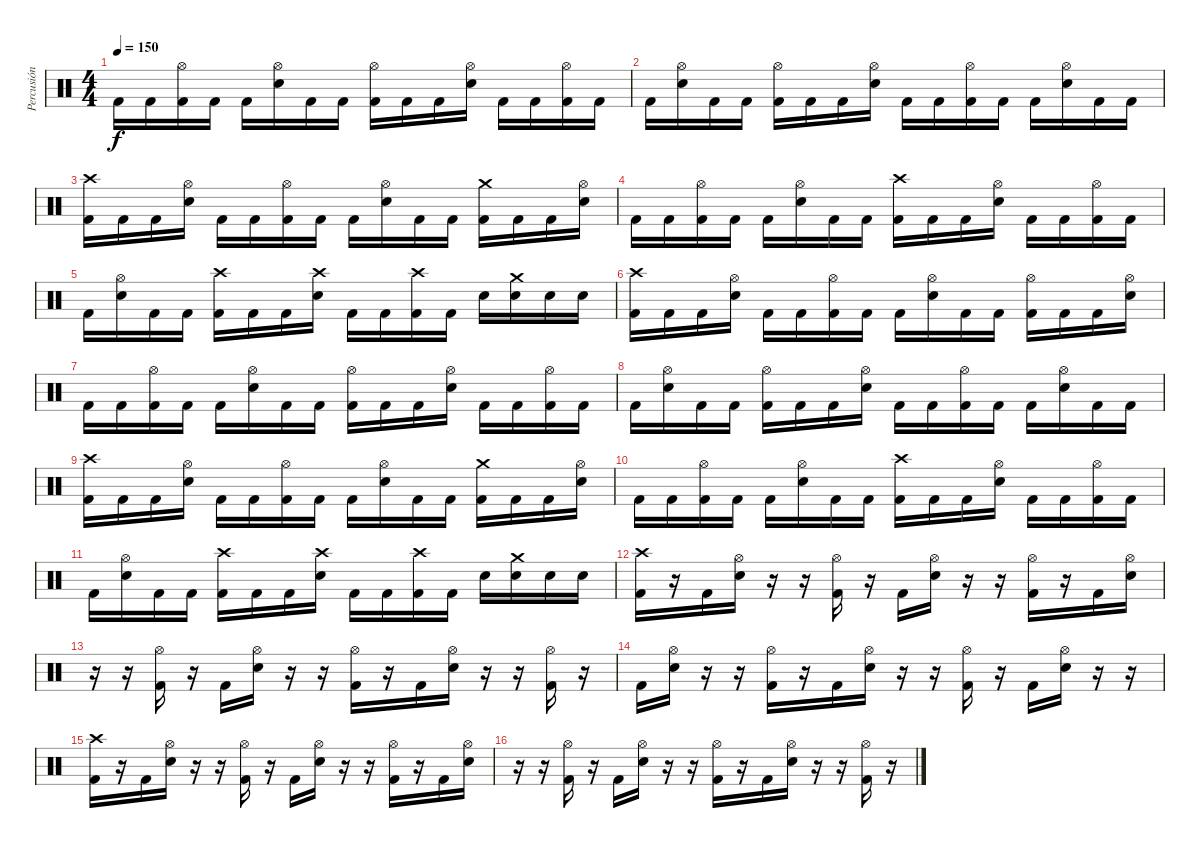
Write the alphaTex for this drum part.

\track ("Percusión" "Percusión") {instrument percussion}
\staff {score}
\articulation defaults
\ts (4 4)
\tempo 150
\clef neutral
\ks c "Kick (hit) 2".16{dy f} "Kick (hit) 2".16
("Hi-Hat (open)" "Kick (hit) 2").16 "Kick (hit) 2".16 "Kick (hit) 2".16 ("Hi-Hat (open)" "Electric Snare (hit)").16 "Kick (hit) 2".16 "Kick (hit) 2".16 ("Hi-Hat (open)" "Kick (hit) 2").16 "Kick (hit) 2".16 "Kick (hit) 2".16 ("Hi-Hat (open)" "Electric Snare (hit)").16 "Kick (hit) 2".16 "Kick (hit) 2".16 ("Hi-Hat (open)" "Kick (hit) 2").16 "Kick (hit) 2".16 |
"Kick (hit) 2".16 ("Hi-Hat (open)" "Electric Snare (hit)").16 "Kick (hit) 2".16 "Kick (hit) 2".16 ("Hi-Hat (open)" "Kick (hit) 2").16 "Kick (hit) 2".16 "Kick (hit) 2".16 ("Hi-Hat (open)" "Electric Snare (hit)").16 "Kick (hit) 2".16 "Kick (hit) 2".16 ("Hi-Hat (open)" "Kick (hit) 2").16 "Kick (hit) 2".16 "Kick (hit) 2".16 ("Hi-Hat (open)" "Electric Snare (hit)").16 "Kick (hit) 2".16 "Kick (hit) 2".16 |
("Crash high (hit)" "Kick (hit) 2").16 "Kick (hit) 2".16 "Kick (hit) 2".16 ("Hi-Hat (open)" "Electric Snare (hit)").16 "Kick (hit) 2".16 "Kick (hit) 2".16 ("Hi-Hat (open)" "Kick (hit) 2").16 "Kick (hit) 2".16 "Kick (hit) 2".16 ("Hi-Hat (open)" "Electric Snare (hit)").16 "Kick (hit) 2".16 "Kick (hit) 2".16 ("Crash medium (hit)" "Kick (hit) 2").16 "Kick (hit) 2".16 "Kick (hit) 2".16 ("Hi-Hat (open)" "Electric Snare (hit)").16 |
"Kick (hit) 2".16 "Kick (hit) 2".16 ("Hi-Hat (open)" "Kick (hit) 2").16 "Kick (hit) 2".16 "Kick (hit) 2".16 ("Hi-Hat (open)" "Electric Snare (hit)").16 "Kick (hit) 2".16 "Kick (hit) 2".16 ("Crash high (hit)" "Kick (hit) 2").16 "Kick (hit) 2".16 "Kick (hit) 2".16 ("Hi-Hat (open)" "Electric Snare (hit)").16 "Kick (hit) 2".16 "Kick (hit) 2".16 ("Hi-Hat (open)" "Kick (hit) 2").16 "Kick (hit) 2".16 |
"Kick (hit) 2".16 ("Hi-Hat (open)" "Electric Snare (hit)").16 "Kick (hit) 2".16 "Kick (hit) 2".16 ("Crash high (hit)" "Kick (hit) 2").16 "Kick (hit) 2".16 "Kick (hit) 2".16 ("Crash high (hit)" "Electric Snare (hit)").16 "Kick (hit) 2".16 "Kick (hit) 2".16 ("Crash high (hit)" "Kick (hit) 2").16 "Kick (hit) 2".16 "Electric Snare (hit)".16 ("Crash medium (hit)" "Electric Snare (hit)").16 "Electric Snare (hit)".16 "Electric Snare (hit)".16 |
("Crash high (hit)" "Kick (hit) 2").16 "Kick (hit) 2".16 "Kick (hit) 2".16 ("Hi-Hat (open)" "Electric Snare (hit)").16 "Kick (hit) 2".16 "Kick (hit) 2".16 ("Hi-Hat (open)" "Kick (hit) 2").16 "Kick (hit) 2".16 "Kick (hit) 2".16 ("Hi-Hat (open)" "Electric Snare (hit)").16 "Kick (hit) 2".16 "Kick (hit) 2".16 ("Hi-Hat (open)" "Kick (hit) 2").16 "Kick (hit) 2".16 "Kick (hit) 2".16 ("Hi-Hat (open)" "Electric Snare (hit)").16 |
"Kick (hit) 2".16 "Kick (hit) 2".16 ("Hi-Hat (open)" "Kick (hit) 2").16 "Kick (hit) 2".16 "Kick (hit) 2".16 ("Hi-Hat (open)" "Electric Snare (hit)").16 "Kick (hit) 2".16 "Kick (hit) 2".16 ("Hi-Hat (open)" "Kick (hit) 2").16 "Kick (hit) 2".16 "Kick (hit) 2".16 ("Hi-Hat (open)" "Electric Snare (hit)").16 "Kick (hit) 2".16 "Kick (hit) 2".16 ("Hi-Hat (open)" "Kick (hit) 2").16 "Kick (hit) 2".16 |
"Kick (hit) 2".16 ("Hi-Hat (open)" "Electric Snare (hit)").16 "Kick (hit) 2".16 "Kick (hit) 2".16 ("Hi-Hat (open)" "Kick (hit) 2").16 "Kick (hit) 2".16 "Kick (hit) 2".16 ("Hi-Hat (open)" "Electric Snare (hit)").16 "Kick (hit) 2".16 "Kick (hit) 2".16 ("Hi-Hat (open)" "Kick (hit) 2").16 "Kick (hit) 2".16 "Kick (hit) 2".16 ("Hi-Hat (open)" "Electric Snare (hit)").16 "Kick (hit) 2".16 "Kick (hit) 2".16 |
("Crash high (hit)" "Kick (hit) 2").16 "Kick (hit) 2".16 "Kick (hit) 2".16 ("Hi-Hat (open)" "Electric Snare (hit)").16 "Kick (hit) 2".16 "Kick (hit) 2".16 ("Hi-Hat (open)" "Kick (hit) 2").16 "Kick (hit) 2".16 "Kick (hit) 2".16 ("Hi-Hat (open)" "Electric Snare (hit)").16 "Kick (hit) 2".16 "Kick (hit) 2".16 ("Crash medium (hit)" "Kick (hit) 2").16 "Kick (hit) 2".16 "Kick (hit) 2".16 ("Hi-Hat (open)" "Electric Snare (hit)").16 |
"Kick (hit) 2".16 "Kick (hit) 2".16 ("Hi-Hat (open)" "Kick (hit) 2").16 "Kick (hit) 2".16 "Kick (hit) 2".16 ("Hi-Hat (open)" "Electric Snare (hit)").16 "Kick (hit) 2".16 "Kick (hit) 2".16 ("Crash high (hit)" "Kick (hit) 2").16 "Kick (hit) 2".16 "Kick (hit) 2".16 ("Hi-Hat (open)" "Electric Snare (hit)").16 "Kick (hit) 2".16 "Kick (hit) 2".16 ("Hi-Hat (open)" "Kick (hit) 2").16 "Kick (hit) 2".16 |
"Kick (hit) 2".16 ("Hi-Hat (open)" "Electric Snare (hit)").16 "Kick (hit) 2".16 "Kick (hit) 2".16 ("Crash high (hit)" "Kick (hit) 2").16 "Kick (hit) 2".16 "Kick (hit) 2".16 ("Crash high (hit)" "Electric Snare (hit)").16 "Kick (hit) 2".16 "Kick (hit) 2".16 ("Crash high (hit)" "Kick (hit) 2").16 "Kick (hit) 2".16 "Electric Snare (hit)".16 ("Crash medium (hit)" "Electric Snare (hit)").16 "Electric Snare (hit)".16 "Electric Snare (hit)".16 |
("Crash high (hit)" "Kick (hit) 2").16 r.16 "Kick (hit) 2".16 ("Hi-Hat (open)" "Electric Snare (hit)").16 r.16 r.16 ("Hi-Hat (open)" "Kick (hit) 2").16 r.16 "Kick (hit) 2".16 ("Hi-Hat (open)" "Electric Snare (hit)").16 r.16 r.16 ("Hi-Hat (open)" "Kick (hit) 2").16 r.16 "Kick (hit) 2".16 ("Hi-Hat (open)" "Electric Snare (hit)").16 |
r.16 r.16 ("Hi-Hat (open)" "Kick (hit) 2").16 r.16 "Kick (hit) 2".16 ("Hi-Hat (open)" "Electric Snare (hit)").16 r.16 r.16 ("Hi-Hat (open)" "Kick (hit) 2").16 r.16 "Kick (hit) 2".16 ("Hi-Hat (open)" "Electric Snare (hit)").16 r.16 r.16 ("Hi-Hat (open)" "Kick (hit) 2").16 r.16 |
"Kick (hit) 2".16 ("Hi-Hat (open)" "Electric Snare (hit)").16 r.16 r.16 ("Hi-Hat (open)" "Kick (hit) 2").16 r.16 "Kick (hit) 2".16 ("Hi-Hat (open)" "Electric Snare (hit)").16 r.16 r.16 ("Hi-Hat (open)" "Kick (hit) 2").16 r.16 "Kick (hit) 2".16 ("Hi-Hat (open)" "Electric Snare (hit)").16 r.16 r.16 |
("Crash high (hit)" "Kick (hit) 2").16 r.16 "Kick (hit) 2".16 ("Hi-Hat (open)" "Electric Snare (hit)").16 r.16 r.16 ("Hi-Hat (open)" "Kick (hit) 2").16 r.16 "Kick (hit) 2".16 ("Hi-Hat (open)" "Electric Snare (hit)").16 r.16 r.16 ("Hi-Hat (open)" "Kick (hit) 2").16 r.16 "Kick (hit) 2".16 ("Hi-Hat (open)" "Electric Snare (hit)").16 |
r.16 r.16 ("Hi-Hat (open)" "Kick (hit) 2").16 r.16 "Kick (hit) 2".16 ("Hi-Hat (open)" "Electric Snare (hit)").16 r.16 r.16 ("Hi-Hat (open)" "Kick (hit) 2").16 r.16 "Kick (hit) 2".16 ("Hi-Hat (open)" "Electric Snare (hit)").16 r.16 r.16 ("Hi-Hat (open)" "Kick (hit) 2").16 r.16
